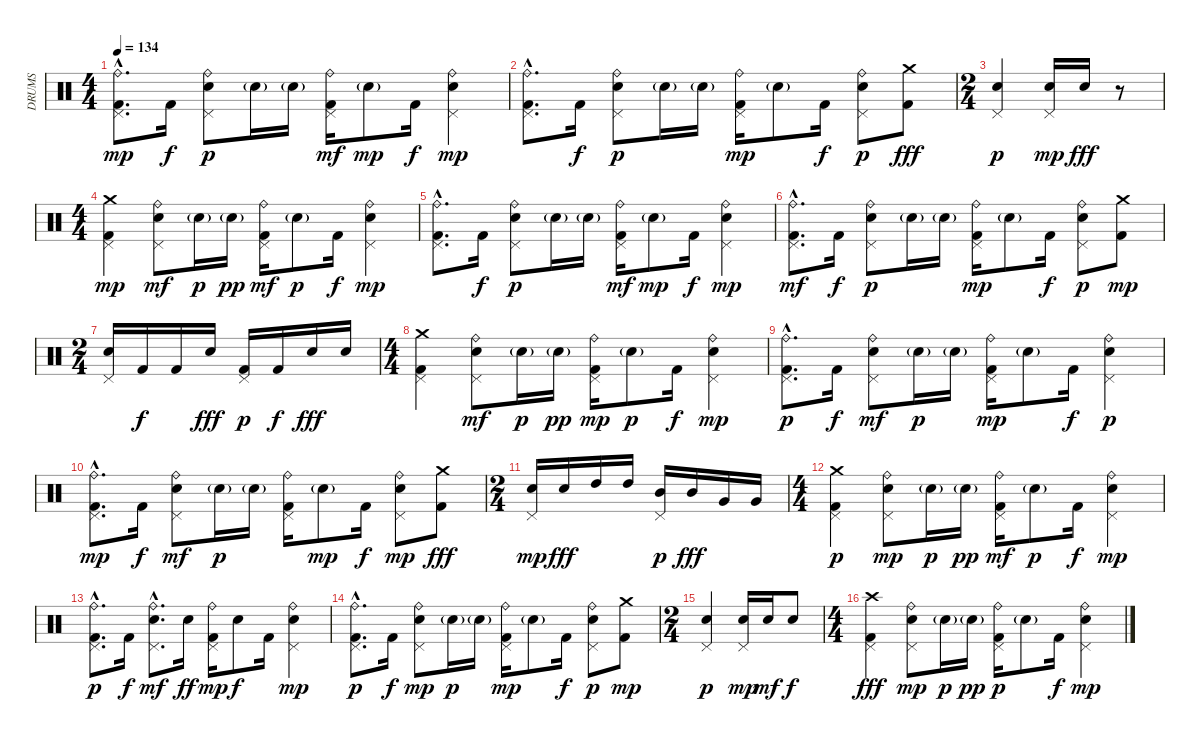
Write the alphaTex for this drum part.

\track ("DRUMS" "DRUMS") {instrument percussion}
\staff {score}
\articulation defaults
\ts (4 4)
\tempo 134
\clef neutral
\ks c
("Ride (bell)"{hac} "Pedal Hi-Hat (hit)"{hac} "Kick (hit) 2"{hac}).8{d dy mp} "Kick (hit) 2".16{dy f} ("Ride (bell)" "Electric Snare (hit)" "Pedal Hi-Hat (hit)").8{dy p} "Electric Snare (hit)"{g}.16 "Electric Snare (hit)"{g}.16 ("Ride (bell)" "Pedal Hi-Hat (hit)" "Kick (hit) 2").16{dy mf} "Electric Snare (hit)"{g}.8{dy mp} "Kick (hit) 2".16{dy f} ("Ride (bell)" "Electric Snare (hit)" "Pedal Hi-Hat (hit)").4{dy mp} |
("Ride (bell)"{hac} "Pedal Hi-Hat (hit)"{hac} "Kick (hit) 2"{hac}).8{d} "Kick (hit) 2".16{dy f} ("Ride (bell)" "Electric Snare (hit)" "Pedal Hi-Hat (hit)").8{dy p} "Electric Snare (hit)"{g}.16 "Electric Snare (hit)"{g}.16 ("Ride (bell)" "Pedal Hi-Hat (hit)" "Kick (hit) 2").16{dy mp} "Electric Snare (hit)"{g}.8 "Kick (hit) 2".16{dy f} ("Ride (bell)" "Electric Snare (hit)" "Pedal Hi-Hat (hit)").8{dy p} ("Crash medium (hit)" "Kick (hit) 2").8{dy fff} |
\ts (2 4)
("Electric Snare (hit)" "Pedal Hi-Hat (hit)").4{dy p} ("Electric Snare (hit)" "Pedal Hi-Hat (hit)").16{dy mp} "Electric Snare (hit)".16{dy fff} r.8 |
\ts (4 4)
("Crash medium (hit)" "Pedal Hi-Hat (hit)" "Kick (hit) 2").4{dy mp} ("Ride (bell)" "Electric Snare (hit)" "Pedal Hi-Hat (hit)").8{dy mf} "Electric Snare (hit)"{g}.16{dy p} "Electric Snare (hit)"{g}.16{dy pp} ("Ride (bell)" "Pedal Hi-Hat (hit)" "Kick (hit) 2").16{dy mf} "Electric Snare (hit)"{g}.8{dy p} "Kick (hit) 2".16{dy f} ("Ride (bell)" "Electric Snare (hit)" "Pedal Hi-Hat (hit)").4{dy mp} |
("Ride (bell)"{hac} "Pedal Hi-Hat (hit)"{hac} "Kick (hit) 2"{hac}).8{d} "Kick (hit) 2".16{dy f} ("Ride (bell)" "Electric Snare (hit)" "Pedal Hi-Hat (hit)").8{dy p} "Electric Snare (hit)"{g}.16 "Electric Snare (hit)"{g}.16 ("Ride (bell)" "Pedal Hi-Hat (hit)" "Kick (hit) 2").16{dy mf} "Electric Snare (hit)"{g}.8{dy mp} "Kick (hit) 2".16{dy f} ("Ride (bell)" "Electric Snare (hit)" "Pedal Hi-Hat (hit)").4{dy mp} |
("Ride (bell)"{hac} "Pedal Hi-Hat (hit)"{hac} "Kick (hit) 2"{hac}).8{d dy mf} "Kick (hit) 2".16{dy f} ("Ride (bell)" "Electric Snare (hit)" "Pedal Hi-Hat (hit)").8{dy p} "Electric Snare (hit)"{g}.16 "Electric Snare (hit)"{g}.16 ("Ride (bell)" "Pedal Hi-Hat (hit)" "Kick (hit) 2").16{dy mp} "Electric Snare (hit)"{g}.8 "Kick (hit) 2".16{dy f} ("Ride (bell)" "Electric Snare (hit)" "Pedal Hi-Hat (hit)").8{dy p} ("Crash medium (hit)" "Kick (hit) 2").8{dy mp} |
\ts (2 4)
("Electric Snare (hit)" "Pedal Hi-Hat (hit)").16 "Kick (hit) 2".16{dy f} "Kick (hit) 2".16 "Electric Snare (hit)".16{dy fff} ("Pedal Hi-Hat (hit)" "Kick (hit) 2").16{dy p} "Kick (hit) 2".16{dy f} "Electric Snare (hit)".16{dy fff} "Electric Snare (hit)".16 |
\ts (4 4)
("Crash medium (hit)" "Pedal Hi-Hat (hit)" "Kick (hit) 2").4 ("Ride (bell)" "Electric Snare (hit)" "Pedal Hi-Hat (hit)").8{dy mf} "Electric Snare (hit)"{g}.16{dy p} "Electric Snare (hit)"{g}.16{dy pp} ("Ride (bell)" "Pedal Hi-Hat (hit)" "Kick (hit) 2").16{dy mp} "Electric Snare (hit)"{g}.8{dy p} "Kick (hit) 2".16{dy f} ("Ride (bell)" "Electric Snare (hit)" "Pedal Hi-Hat (hit)").4{dy mp} |
("Ride (bell)"{hac} "Pedal Hi-Hat (hit)"{hac} "Kick (hit) 2"{hac}).8{d dy p} "Kick (hit) 2".16{dy f} ("Ride (bell)" "Electric Snare (hit)" "Pedal Hi-Hat (hit)").8{dy mf} "Electric Snare (hit)"{g}.16{dy p} "Electric Snare (hit)"{g}.16 ("Ride (bell)" "Pedal Hi-Hat (hit)" "Kick (hit) 2").16{dy mp} "Electric Snare (hit)"{g}.8 "Kick (hit) 2".16{dy f} ("Ride (bell)" "Electric Snare (hit)" "Pedal Hi-Hat (hit)").4{dy p} |
("Ride (bell)"{hac} "Pedal Hi-Hat (hit)"{hac} "Kick (hit) 2"{hac}).8{d dy mp} "Kick (hit) 2".16{dy f} ("Ride (bell)" "Electric Snare (hit)" "Pedal Hi-Hat (hit)").8{dy mf} "Electric Snare (hit)"{g}.16{dy p} "Electric Snare (hit)"{g}.16 ("Ride (bell)" "Pedal Hi-Hat (hit)" "Kick (hit) 2").16 "Electric Snare (hit)"{g}.8{dy mp} "Kick (hit) 2".16{dy f} ("Ride (bell)" "Electric Snare (hit)" "Pedal Hi-Hat (hit)").8{dy mp} ("Crash medium (hit)" "Kick (hit) 2").8{dy fff} |
\ts (2 4)
("Electric Snare (hit)" "Pedal Hi-Hat (hit)").16{dy mp} "Electric Snare (hit)".16{dy fff} "High Tom (hit)".16 "High Tom (hit)".16 ("Mid Tom (hit)" "Pedal Hi-Hat (hit)").16{dy p} "Mid Tom (hit)".16{dy fff} "Very Low Tom (hit)".16 "Very Low Tom (hit)".16 |
\ts (4 4)
("Crash medium (hit)" "Pedal Hi-Hat (hit)" "Kick (hit) 2").4{dy p} ("Ride (bell)" "Electric Snare (hit)" "Pedal Hi-Hat (hit)").8{dy mp} "Electric Snare (hit)"{g}.16{dy p} "Electric Snare (hit)"{g}.16{dy pp} ("Ride (bell)" "Pedal Hi-Hat (hit)" "Kick (hit) 2").16{dy mf} "Electric Snare (hit)"{g}.8{dy p} "Kick (hit) 2".16{dy f} ("Ride (bell)" "Electric Snare (hit)" "Pedal Hi-Hat (hit)").4{dy mp} |
("Ride (bell)"{hac} "Pedal Hi-Hat (hit)"{hac} "Kick (hit) 2"{hac}).8{d dy p} "Kick (hit) 2".16{dy f} ("Ride (bell)"{hac} "Electric Snare (hit)"{hac} "Pedal Hi-Hat (hit)"{hac}).8{d dy mf} "Electric Snare (hit)".16{dy ff} ("Ride (bell)" "Pedal Hi-Hat (hit)" "Kick (hit) 2").16{dy mp} "Electric Snare (hit)".8{dy f} "Kick (hit) 2".16 ("Ride (bell)" "Electric Snare (hit)" "Pedal Hi-Hat (hit)").4{dy mp} |
("Ride (bell)"{hac} "Pedal Hi-Hat (hit)"{hac} "Kick (hit) 2"{hac}).8{d dy p} "Kick (hit) 2".16{dy f} ("Ride (bell)" "Electric Snare (hit)" "Pedal Hi-Hat (hit)").8{dy mp} "Electric Snare (hit)"{g}.16{dy p} "Electric Snare (hit)"{g}.16 ("Ride (bell)" "Pedal Hi-Hat (hit)" "Kick (hit) 2").16{dy mp} "Electric Snare (hit)"{g}.8 "Kick (hit) 2".16{dy f} ("Ride (bell)" "Electric Snare (hit)" "Pedal Hi-Hat (hit)").8{dy p} ("Crash medium (hit)" "Kick (hit) 2").8{dy mp} |
\ts (2 4)
("Electric Snare (hit)" "Pedal Hi-Hat (hit)").4{dy p} ("Electric Snare (hit)" "Pedal Hi-Hat (hit)").16{dy mp} "Electric Snare (hit)".16{dy mf} "Electric Snare (hit)".8{dy f} |
\ts (4 4)
("Crash high (hit)" "Pedal Hi-Hat (hit)" "Kick (hit) 2").4{dy fff} ("Ride (bell)" "Electric Snare (hit)" "Pedal Hi-Hat (hit)").8{dy mp} "Electric Snare (hit)"{g}.16{dy p} "Electric Snare (hit)"{g}.16{dy pp} ("Ride (bell)" "Pedal Hi-Hat (hit)" "Kick (hit) 2").16{dy p} "Electric Snare (hit)"{g}.8 "Kick (hit) 2".16{dy f} ("Ride (bell)" "Electric Snare (hit)" "Pedal Hi-Hat (hit)").4{dy mp}
